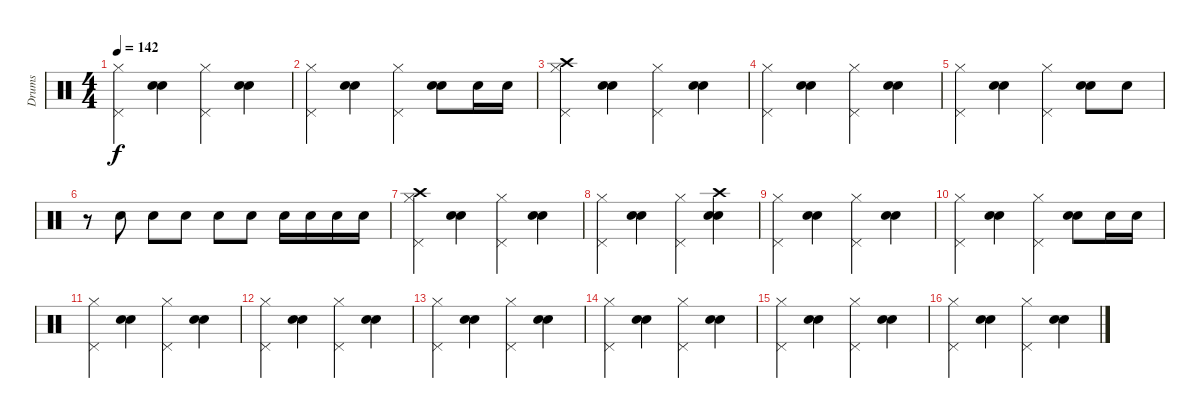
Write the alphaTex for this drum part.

\track ("Drums" "Drums") {instrument percussion}
\staff {score}
\articulation defaults
\ts (4 4)
\tempo 142
\clef neutral
\ks c
("Hi-Hat (closed)" "Pedal Hi-Hat (hit)").4{dy f} ("Snare (hit) 2" "Electric Snare (hit)").4 ("Hi-Hat (closed)" "Pedal Hi-Hat (hit)").4 ("Snare (hit) 2" "Electric Snare (hit)").4 |
("Hi-Hat (closed)" "Pedal Hi-Hat (hit)").4 ("Snare (hit) 2" "Electric Snare (hit)").4 ("Hi-Hat (closed)" "Pedal Hi-Hat (hit)").4 ("Snare (hit) 2" "Electric Snare (hit)").8 "Snare (hit) 2".16 "Snare (hit) 2".16 |
("Crash high (hit)" "Hi-Hat (closed)" "Pedal Hi-Hat (hit)").4 ("Snare (hit) 2" "Electric Snare (hit)").4 ("Hi-Hat (closed)" "Pedal Hi-Hat (hit)").4 ("Snare (hit) 2" "Electric Snare (hit)").4 |
("Hi-Hat (closed)" "Pedal Hi-Hat (hit)").4 ("Snare (hit) 2" "Electric Snare (hit)").4 ("Hi-Hat (closed)" "Pedal Hi-Hat (hit)").4 ("Snare (hit) 2" "Electric Snare (hit)").4 |
("Hi-Hat (closed)" "Pedal Hi-Hat (hit)").4 ("Snare (hit) 2" "Electric Snare (hit)").4 ("Hi-Hat (closed)" "Pedal Hi-Hat (hit)").4 ("Snare (hit) 2" "Electric Snare (hit)").8 "Snare (hit) 2".8 |
r.8 "Snare (hit) 2".8 "Snare (hit) 2".8 "Snare (hit) 2".8 "Snare (hit) 2".8 "Snare (hit) 2".8 "Snare (hit) 2".16 "Snare (hit) 2".16 "Snare (hit) 2".16 "Snare (hit) 2".16 |
("Crash high (hit)" "Hi-Hat (closed)" "Pedal Hi-Hat (hit)").4 ("Snare (hit) 2" "Electric Snare (hit)").4 ("Hi-Hat (closed)" "Pedal Hi-Hat (hit)").4 ("Snare (hit) 2" "Electric Snare (hit)").4 |
("Hi-Hat (closed)" "Pedal Hi-Hat (hit)").4 ("Snare (hit) 2" "Electric Snare (hit)").4 ("Hi-Hat (closed)" "Pedal Hi-Hat (hit)").4 ("Crash high (hit)" "Snare (hit) 2" "Electric Snare (hit)").4 |
("Hi-Hat (closed)" "Pedal Hi-Hat (hit)").4 ("Snare (hit) 2" "Electric Snare (hit)").4 ("Hi-Hat (closed)" "Pedal Hi-Hat (hit)").4 ("Snare (hit) 2" "Electric Snare (hit)").4 |
("Hi-Hat (closed)" "Pedal Hi-Hat (hit)").4 ("Snare (hit) 2" "Electric Snare (hit)").4 ("Hi-Hat (closed)" "Pedal Hi-Hat (hit)").4 ("Snare (hit) 2" "Electric Snare (hit)").8 "Snare (hit) 2".16 "Snare (hit) 2".16 |
("Hi-Hat (closed)" "Pedal Hi-Hat (hit)").4 ("Snare (hit) 2" "Electric Snare (hit)").4 ("Hi-Hat (closed)" "Pedal Hi-Hat (hit)").4 ("Snare (hit) 2" "Electric Snare (hit)").4 |
("Hi-Hat (closed)" "Pedal Hi-Hat (hit)").4 ("Snare (hit) 2" "Electric Snare (hit)").4 ("Hi-Hat (closed)" "Pedal Hi-Hat (hit)").4 ("Snare (hit) 2" "Electric Snare (hit)").4 |
("Hi-Hat (closed)" "Pedal Hi-Hat (hit)").4 ("Snare (hit) 2" "Electric Snare (hit)").4 ("Hi-Hat (closed)" "Pedal Hi-Hat (hit)").4 ("Snare (hit) 2" "Electric Snare (hit)").4 |
("Hi-Hat (closed)" "Pedal Hi-Hat (hit)").4 ("Snare (hit) 2" "Electric Snare (hit)").4 ("Hi-Hat (closed)" "Pedal Hi-Hat (hit)").4 ("Snare (hit) 2" "Electric Snare (hit)").4 |
("Hi-Hat (closed)" "Pedal Hi-Hat (hit)").4 ("Snare (hit) 2" "Electric Snare (hit)").4 ("Hi-Hat (closed)" "Pedal Hi-Hat (hit)").4 ("Snare (hit) 2" "Electric Snare (hit)").4 |
("Hi-Hat (closed)" "Pedal Hi-Hat (hit)").4 ("Snare (hit) 2" "Electric Snare (hit)").4 ("Hi-Hat (closed)" "Pedal Hi-Hat (hit)").4 ("Snare (hit) 2" "Electric Snare (hit)").4
